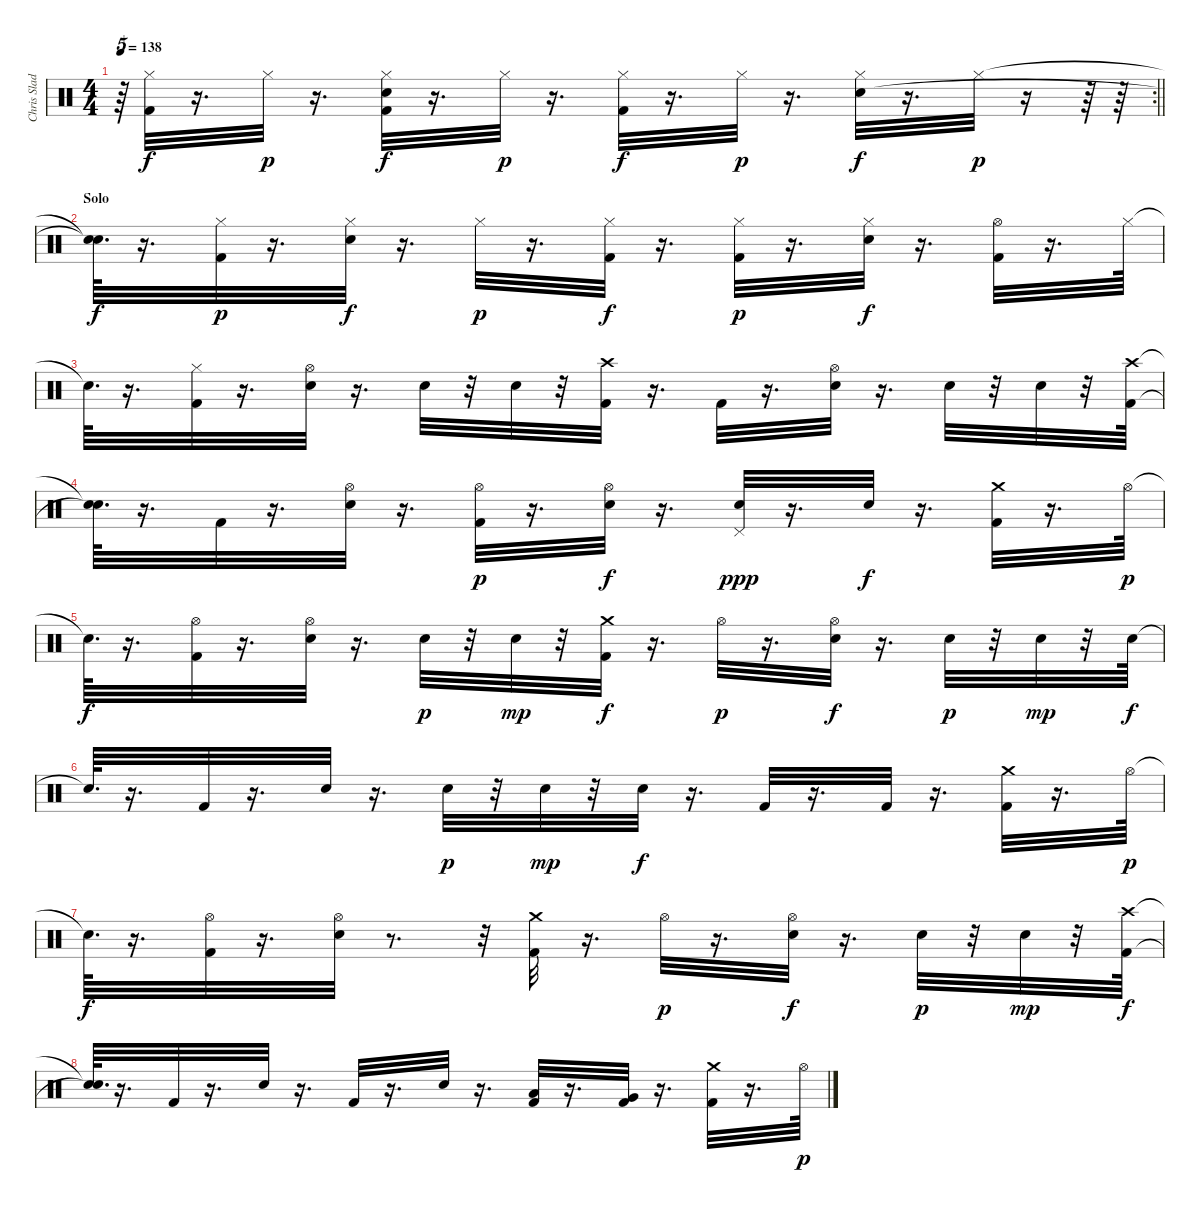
\track ("Chris Slade" "Chris Slad") {instrument percussion}
\staff {score}
\articulation defaults
\rc 2
\ts (4 4)
\section ("" "")
\tempo 138
\clef neutral
\barLineRight lightlight
\ks c
r.64{tu (5 4) dy p} ("Hi-Hat (closed)" "Kick (hit) 2").32{dy f} r.16{d} "Hi-Hat (closed)".32{dy p} r.16{d} ("Kick (hit) 2" "Hi-Hat (closed)" "Electric Snare (hit)").32{dy f} r.16{d} "Hi-Hat (closed)".32{dy p} r.16{d} ("Hi-Hat (closed)" "Kick (hit) 2").32{dy f} r.16{d} "Hi-Hat (closed)".32{dy p} r.16{d} ("Hi-Hat (closed)" "Electric Snare (hit)").32{dy f} r.16{d} "Hi-Hat (closed)".32{dy p} r.16 r.64 r.64 |
\section ("" "Solo")
("Snare (hit)"{t} "Snare (hit)"{t}).64{d dy f} r.16{d} ("Hi-Hat (closed)" "Kick (hit) 2").32{dy p} r.16{d} ("Hi-Hat (closed)" "Electric Snare (hit)").32{dy f} r.16{d} "Hi-Hat (closed)".32{dy p} r.16{d} ("Hi-Hat (closed)" "Kick (hit) 2").32{dy f} r.16{d} ("Hi-Hat (closed)" "Kick (hit) 2").32{dy p} r.16{d} ("Hi-Hat (closed)" "Electric Snare (hit)").32{dy f} r.16{d} ("Hi-Hat (open)" "Kick (hit) 2").32 r.16{d} "Hi-Hat (closed)".64 |
"Snare (hit)"{t}.64{d} r.16{d} ("Hi-Hat (closed)" "Kick (hit) 2").32 r.16{d} ("Hi-Hat (open)" "Electric Snare (hit)").32 r.16{d} "Electric Snare (hit)".32 r.32 "Electric Snare (hit)".32 r.32 ("Crash high (hit)" "Kick (hit) 2").32 r.16{d} "Kick (hit) 2".32 r.16{d} ("Hi-Hat (open)" "Electric Snare (hit)").32 r.16{d} "Electric Snare (hit)".32 r.32 "Electric Snare (hit)".32 r.32 ("Crash high (hit)" "Kick (hit) 2").64 |
("Snare (hit)"{t} "Snare (hit)"{t}).64{d} r.16{d} "Kick (hit) 2".32 r.16{d} ("Hi-Hat (open)" "Electric Snare (hit)").32 r.16{d} ("Hi-Hat (open)" "Kick (hit) 2").32{dy p} r.16{d} ("Hi-Hat (open)" "Electric Snare (hit)").32{dy f} r.16{d} ("Electric Snare (hit)" "Pedal Hi-Hat (hit)").32{dy ppp} r.16{d} "Electric Snare (hit)".32{dy f} r.16{d} ("Crash medium (hit)" "Kick (hit) 2").32 r.16{d} "Hi-Hat (open)".64{dy p} |
"Snare (hit)"{t}.64{d dy f} r.16{d} ("Hi-Hat (open)" "Kick (hit) 2").32 r.16{d} ("Hi-Hat (open)" "Electric Snare (hit)").32 r.16{d} "Electric Snare (hit)".32{dy p} r.32 "Electric Snare (hit)".32{dy mp} r.32 ("Kick (hit) 2" "Crash medium (hit)").32{dy f} r.16{d} "Hi-Hat (open)".32{dy p} r.16{d} ("Hi-Hat (open)" "Electric Snare (hit)").32{dy f} r.16{d} "Electric Snare (hit)".32{dy p} r.32 "Electric Snare (hit)".32{dy mp} r.32 "Electric Snare (hit)".64{dy f} |
"Snare (hit)"{t}.64{d} r.16{d} "Kick (hit) 2".32 r.16{d} "Electric Snare (hit)".32 r.16{d} "Electric Snare (hit)".32{dy p} r.32 "Electric Snare (hit)".32{dy mp} r.32 "Electric Snare (hit)".32{dy f} r.16{d} "Kick (hit) 2".32 r.16{d} "Kick (hit) 2".32 r.16{d} ("Crash medium (hit)" "Kick (hit) 2").32 r.16{d} "Hi-Hat (open)".64{dy p} |
"Snare (hit)"{t}.64{d dy f} r.16{d} ("Hi-Hat (open)" "Kick (hit) 2").32 r.16{d} ("Hi-Hat (open)" "Electric Snare (hit)").32 r.8{d} r.32 ("Crash medium (hit)" "Kick (hit) 2").32 r.16{d} "Hi-Hat (open)".32{dy p} r.16{d} ("Hi-Hat (open)" "Electric Snare (hit)").32{dy f} r.16{d} "Electric Snare (hit)".32{dy p} r.32 "Electric Snare (hit)".32{dy mp} r.32 ("Crash high (hit)" "Kick (hit) 2").64{dy f} |
("Snare (hit)"{t} "Snare (hit)"{t}).64{d} r.16{d} "Kick (hit) 2".32 r.16{d} "Electric Snare (hit)".32 r.16{d} "Kick (hit) 2".32 r.16{d} "Electric Snare (hit)".32 r.16{d} ("Low Tom (hit)" "Kick (hit) 2").32 r.16{d} ("Very Low Tom (hit)" "Kick (hit) 2").32 r.16{d} ("Crash medium (hit)" "Kick (hit) 2").32 r.16{d} "Hi-Hat (open)".64{dy p}
